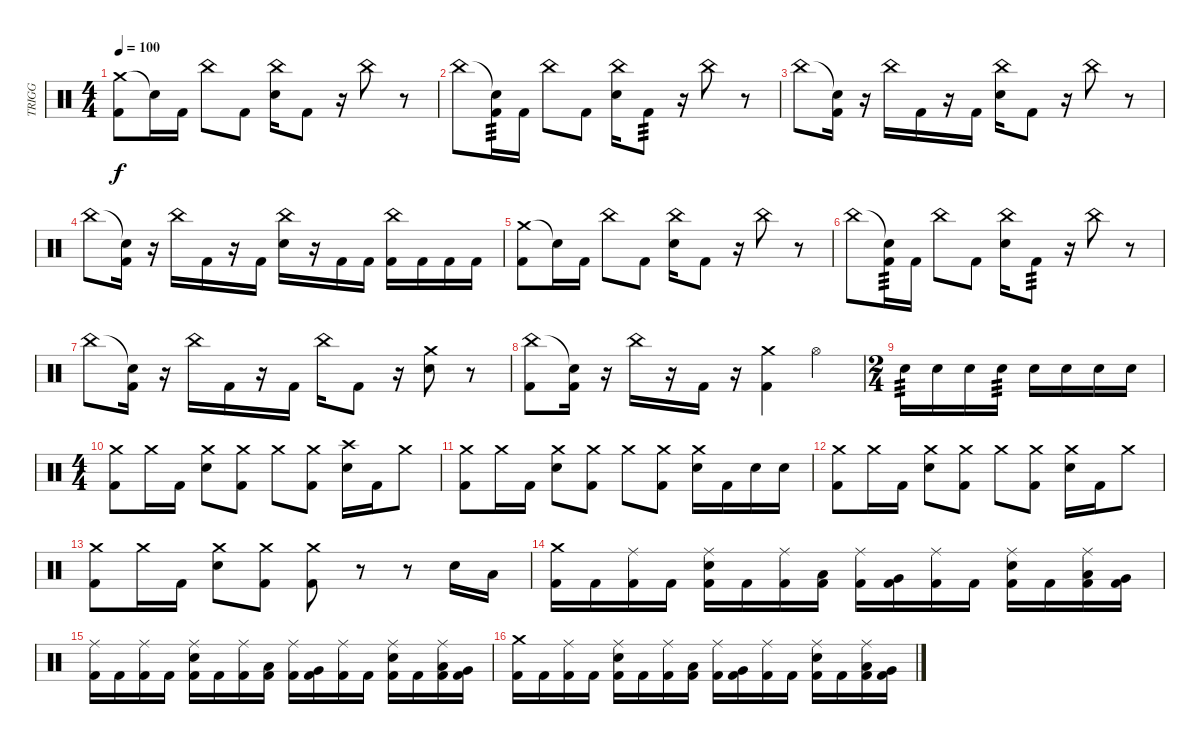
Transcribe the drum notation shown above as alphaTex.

\track ("TRIGG" "TRIGG") {instrument percussion}
\staff {score}
\articulation defaults
\ts (4 4)
\tempo 100
\clef neutral
\ks c
("Crash medium (hit)" "Kick (hit) 2").8{dy f} "Snare (hit)"{t}.16 "Kick (hit) 2".16 "China (hit)".8 "Kick (hit) 2".8 ("China (hit)" "Electric Snare (hit)").16 "Kick (hit) 2".8 r.16 "China (hit)".8 r.8 |
"China (hit)".8 ("Snare (hit)"{t} "Kick (hit) 2").16{tp 3} "Kick (hit) 2".16 "China (hit)".8 "Kick (hit) 2".8 ("China (hit)" "Electric Snare (hit)").16 "Kick (hit) 2".8{tp 3} r.16 "China (hit)".8 r.8 |
"China (hit)".8 ("Snare (hit)"{t} "Kick (hit) 2").16 r.16 "China (hit)".16 "Kick (hit) 2".16 r.16 "Kick (hit) 2".16 ("China (hit)" "Electric Snare (hit)").16 "Kick (hit) 2".8 r.16 "China (hit)".8 r.8 |
"China (hit)".8 ("Snare (hit)"{t} "Kick (hit) 2").16 r.16 "China (hit)".16 "Kick (hit) 2".16 r.16 "Kick (hit) 2".16 ("China (hit)" "Electric Snare (hit)").16 r.16 "Kick (hit) 2".16 "Kick (hit) 2".16 ("China (hit)" "Kick (hit) 2").16 "Kick (hit) 2".16 "Kick (hit) 2".16 "Kick (hit) 2".16 |
("Crash medium (hit)" "Kick (hit) 2").8 "Snare (hit)"{t}.16 "Kick (hit) 2".16 "China (hit)".8 "Kick (hit) 2".8 ("China (hit)" "Electric Snare (hit)").16 "Kick (hit) 2".8 r.16 "China (hit)".8 r.8 |
"China (hit)".8 ("Snare (hit)"{t} "Kick (hit) 2").16{tp 3} "Kick (hit) 2".16 "China (hit)".8 "Kick (hit) 2".8 ("China (hit)" "Electric Snare (hit)").16 "Kick (hit) 2".8{tp 3} r.16 "China (hit)".8 r.8 |
"China (hit)".8 ("Snare (hit)"{t} "Kick (hit) 2").16 r.16 "China (hit)".16 "Kick (hit) 2".16 r.16 "Kick (hit) 2".16 "China (hit)".16 "Kick (hit) 2".8 r.16 ("Crash medium (hit)" "Electric Snare (hit)").8 r.8 |
("China (hit)" "Kick (hit) 2").8 ("Snare (hit)"{t} "Kick (hit) 2").16 r.16 "China (hit)".16 r.16 "Kick (hit) 2".16 r.16 ("Crash medium (hit)" "Kick (hit) 2").4 "Hi-Hat (open)".4 |
\ts (2 4)
"Electric Snare (hit)".16{tp 3} "Electric Snare (hit)".16 "Electric Snare (hit)".16 "Electric Snare (hit)".16{tp 3} "Electric Snare (hit)".16 "Electric Snare (hit)".16 "Electric Snare (hit)".16 "Electric Snare (hit)".16 |
\ts (4 4)
("Crash medium (hit)" "Kick (hit) 2").8 "Crash medium (hit)".16 "Kick (hit) 2".16 ("Crash medium (hit)" "Electric Snare (hit)").8 ("Crash medium (hit)" "Kick (hit) 2").8 "Crash medium (hit)".8 ("Crash medium (hit)" "Kick (hit) 2").8 ("Crash high (hit)" "Electric Snare (hit)").16 "Kick (hit) 2".16 "Crash medium (hit)".8 |
("Crash medium (hit)" "Kick (hit) 2").8 "Crash medium (hit)".16 "Kick (hit) 2".16 ("Crash medium (hit)" "Electric Snare (hit)").8 ("Crash medium (hit)" "Kick (hit) 2").8 "Crash medium (hit)".8 ("Crash medium (hit)" "Kick (hit) 2").8 ("Crash medium (hit)" "Electric Snare (hit)").16 "Kick (hit) 2".16 "Electric Snare (hit)".16 "Electric Snare (hit)".16 |
("Crash medium (hit)" "Kick (hit) 2").8 "Crash medium (hit)".16 "Kick (hit) 2".16 ("Crash medium (hit)" "Electric Snare (hit)").8 ("Crash medium (hit)" "Kick (hit) 2").8 "Crash medium (hit)".8 ("Crash medium (hit)" "Kick (hit) 2").8 ("Crash medium (hit)" "Electric Snare (hit)").16 "Kick (hit) 2".16 "Crash medium (hit)".8 |
("Crash medium (hit)" "Kick (hit) 2").8 "Crash medium (hit)".16 "Kick (hit) 2".16 ("Crash medium (hit)" "Electric Snare (hit)").8 ("Crash medium (hit)" "Kick (hit) 2").8 ("Crash medium (hit)" "Kick (hit) 2").8 r.8 r.8 "Electric Snare (hit)".16 "Low Tom (hit)".16 |
("Crash medium (hit)" "Kick (hit) 2").16 "Kick (hit) 2".16 ("Ride (middle)" "Kick (hit) 2").16 "Kick (hit) 2".16 ("Ride (middle)" "Electric Snare (hit)" "Kick (hit) 2").16 "Kick (hit) 2".16 ("Ride (middle)" "Kick (hit) 2").16 ("Low Tom (hit)" "Kick (hit) 2").16 ("Ride (middle)" "Kick (hit) 2").16 ("Very Low Tom (hit)" "Kick (hit) 2").16 ("Ride (middle)" "Kick (hit) 2").16 "Kick (hit) 2".16 ("Ride (middle)" "Electric Snare (hit)" "Kick (hit) 2").16 "Kick (hit) 2".16 ("Ride (middle)" "Low Tom (hit)" "Kick (hit) 2").16 ("Very Low Tom (hit)" "Kick (hit) 2").16 |
("Ride (middle)" "Kick (hit) 2").16 "Kick (hit) 2".16 ("Ride (middle)" "Kick (hit) 2").16 "Kick (hit) 2".16 ("Ride (middle)" "Electric Snare (hit)" "Kick (hit) 2").16 "Kick (hit) 2".16 ("Ride (middle)" "Kick (hit) 2").16 ("Low Tom (hit)" "Kick (hit) 2").16 ("Ride (middle)" "Kick (hit) 2").16 ("Very Low Tom (hit)" "Kick (hit) 2").16 ("Ride (middle)" "Kick (hit) 2").16 "Kick (hit) 2".16 ("Ride (middle)" "Electric Snare (hit)" "Kick (hit) 2").16 "Kick (hit) 2".16 ("Ride (middle)" "Low Tom (hit)" "Kick (hit) 2").16 ("Very Low Tom (hit)" "Kick (hit) 2").16 |
("Crash medium (hit)" "Kick (hit) 2").16 "Kick (hit) 2".16 ("Ride (middle)" "Kick (hit) 2").16 "Kick (hit) 2".16 ("Ride (middle)" "Electric Snare (hit)" "Kick (hit) 2").16 "Kick (hit) 2".16 ("Ride (middle)" "Kick (hit) 2").16 ("Low Tom (hit)" "Kick (hit) 2").16 ("Ride (middle)" "Kick (hit) 2").16 ("Very Low Tom (hit)" "Kick (hit) 2").16 ("Ride (middle)" "Kick (hit) 2").16 "Kick (hit) 2".16 ("Ride (middle)" "Electric Snare (hit)" "Kick (hit) 2").16 "Kick (hit) 2".16 ("Ride (middle)" "Low Tom (hit)" "Kick (hit) 2").16 ("Very Low Tom (hit)" "Kick (hit) 2").16
